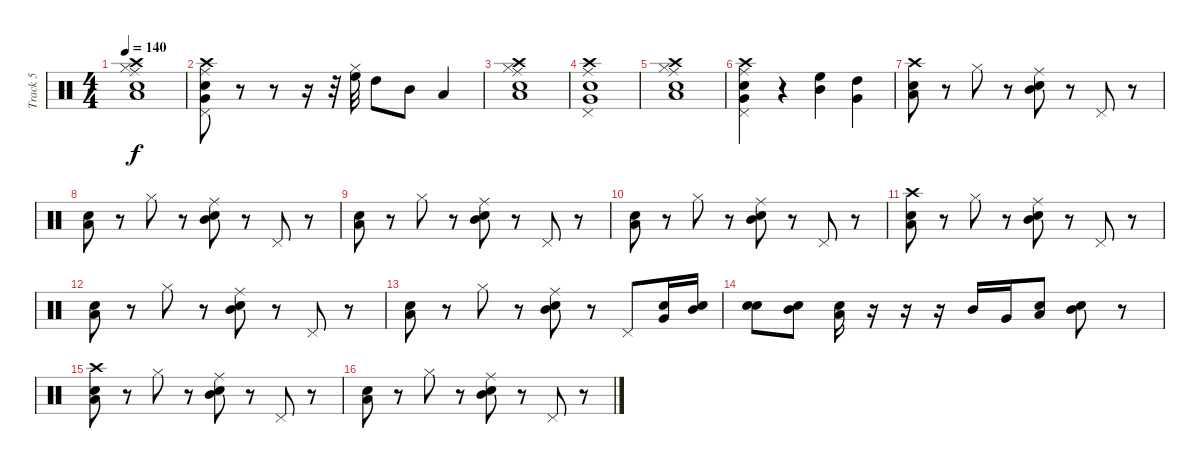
\track ("Track 5" "Track 5") {instrument percussion}
\staff {score}
\articulation defaults
\ts (4 4)
\tempo 140
\clef neutral
\ks c
("Low Tom (hit)" "Hi-Hat (closed)" "Ride (middle)" "Snare (hit) 2" "Crash high (hit)").1{dy f} |
("Very Low Tom (hit)" "Pedal Hi-Hat (hit)" "Crash high (hit)" "Electric Snare (hit)" "Ride (middle)").8 r.8 r.8 r.16 r.32 ("High Floor Tom (hit)" "Hi-Hat (closed)").32 "High Tom (hit)".8 "Mid Tom (hit)".8 "Low Tom (hit)".4 |
("Low Tom (hit)" "Hi-Hat (closed)" "Ride (middle)" "Snare (hit) 2" "Crash high (hit)").1 |
("Very Low Tom (hit)" "Pedal Hi-Hat (hit)" "Crash high (hit)" "Electric Snare (hit)" "Ride (middle)").1 |
("Low Tom (hit)" "Hi-Hat (closed)" "Ride (middle)" "Snare (hit) 2" "Crash high (hit)").1 |
("Very Low Tom (hit)" "Pedal Hi-Hat (hit)" "Crash high (hit)" "Electric Snare (hit)" "Ride (middle)").4 r.4 ("High Floor Tom (hit)" "Mid Tom (hit)").4 ("Very Low Tom (hit)" "High Tom (hit)").4 |
("Low Tom (hit)" "Snare (hit) 2" "Crash high (hit)").8 r.8 "Hi-Hat (closed)".8 r.8 ("Mid Tom (hit)" "Electric Snare (hit)" "Ride (middle)").8 r.8 "Pedal Hi-Hat (hit)".8 r.8 |
("Low Tom (hit)" "Snare (hit) 2").8 r.8 "Hi-Hat (closed)".8 r.8 ("Mid Tom (hit)" "Electric Snare (hit)" "Ride (middle)").8 r.8 "Pedal Hi-Hat (hit)".8 r.8 |
("Low Tom (hit)" "Snare (hit) 2").8 r.8 "Hi-Hat (closed)".8 r.8 ("Mid Tom (hit)" "Electric Snare (hit)" "Ride (middle)").8 r.8 "Pedal Hi-Hat (hit)".8 r.8 |
("Low Tom (hit)" "Snare (hit) 2").8 r.8 "Hi-Hat (closed)".8 r.8 ("Mid Tom (hit)" "Electric Snare (hit)" "Ride (middle)").8 r.8 "Pedal Hi-Hat (hit)".8 r.8 |
("Low Tom (hit)" "Snare (hit) 2" "Crash high (hit)").8 r.8 "Hi-Hat (closed)".8 r.8 ("Mid Tom (hit)" "Electric Snare (hit)" "Ride (middle)").8 r.8 "Pedal Hi-Hat (hit)".8 r.8 |
("Low Tom (hit)" "Snare (hit) 2").8 r.8 "Hi-Hat (closed)".8 r.8 ("Mid Tom (hit)" "Electric Snare (hit)" "Ride (middle)").8 r.8 "Pedal Hi-Hat (hit)".8 r.8 |
("Low Tom (hit)" "Snare (hit) 2").8 r.8 "Hi-Hat (closed)".8 r.8 ("Mid Tom (hit)" "Electric Snare (hit)" "Ride (middle)").8 r.8 "Pedal Hi-Hat (hit)".8 ("Very Low Tom (hit)" "Snare (hit) 2").16 ("Mid Tom (hit)" "Electric Snare (hit)").16 |
("Snare (hit) 2" "Electric Snare (hit)").8 ("Snare (hit) 2" "Mid Tom (hit)").8 ("Low Tom (hit)" "Electric Snare (hit)").16 r.16 r.16 r.16 "Mid Tom (hit)".16 "Very Low Tom (hit)".16 ("Low Tom (hit)" "Snare (hit) 2").8 ("Mid Tom (hit)" "Electric Snare (hit)").8 r.8 |
("Low Tom (hit)" "Snare (hit) 2" "Crash high (hit)").8 r.8 "Hi-Hat (closed)".8 r.8 ("Mid Tom (hit)" "Electric Snare (hit)" "Ride (middle)").8 r.8 "Pedal Hi-Hat (hit)".8 r.8 |
("Low Tom (hit)" "Snare (hit) 2").8 r.8 "Hi-Hat (closed)".8 r.8 ("Mid Tom (hit)" "Electric Snare (hit)" "Ride (middle)").8 r.8 "Pedal Hi-Hat (hit)".8 r.8
